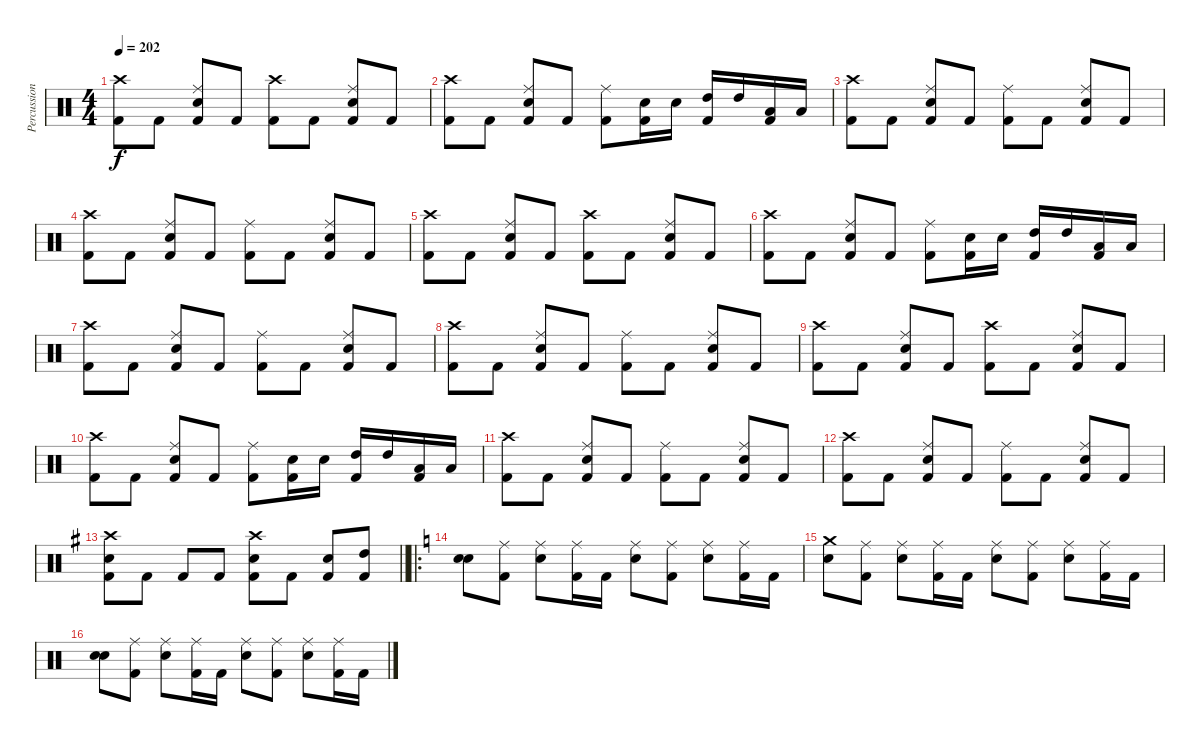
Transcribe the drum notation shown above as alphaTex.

\track ("Percussion" "Percussion") {instrument percussion}
\staff {score}
\articulation defaults
\ts (4 4)
\tempo 202
\clef neutral
\ks c
("Crash high (hit)" "Kick (hit) 2").8{dy f} "Kick (hit) 2".8 ("Ride (middle)" "Electric Snare (hit)" "Kick (hit) 2").8 "Kick (hit) 2".8 ("Crash high (hit)" "Kick (hit) 2").8 "Kick (hit) 2".8 ("Ride (middle)" "Electric Snare (hit)" "Kick (hit) 2").8 "Kick (hit) 2".8 |
("Crash high (hit)" "Kick (hit) 2").8 "Kick (hit) 2".8 ("Ride (middle)" "Electric Snare (hit)" "Kick (hit) 2").8 "Kick (hit) 2".8 ("Ride (middle)" "Kick (hit) 2").8 ("Electric Snare (hit)" "Kick (hit) 2").16 "Electric Snare (hit)".16 ("High Tom (hit)" "Kick (hit) 2").16 "High Tom (hit)".16 ("Low Tom (hit)" "Kick (hit) 2").16 "Low Tom (hit)".16 |
("Crash high (hit)" "Kick (hit) 2").8 "Kick (hit) 2".8 ("Ride (middle)" "Electric Snare (hit)" "Kick (hit) 2").8 "Kick (hit) 2".8 ("Ride (middle)" "Kick (hit) 2").8 "Kick (hit) 2".8 ("Ride (middle)" "Electric Snare (hit)" "Kick (hit) 2").8 "Kick (hit) 2".8 |
("Crash high (hit)" "Kick (hit) 2").8 "Kick (hit) 2".8 ("Ride (middle)" "Electric Snare (hit)" "Kick (hit) 2").8 "Kick (hit) 2".8 ("Ride (middle)" "Kick (hit) 2").8 "Kick (hit) 2".8 ("Ride (middle)" "Electric Snare (hit)" "Kick (hit) 2").8 "Kick (hit) 2".8 |
("Crash high (hit)" "Kick (hit) 2").8 "Kick (hit) 2".8 ("Ride (middle)" "Electric Snare (hit)" "Kick (hit) 2").8 "Kick (hit) 2".8 ("Crash high (hit)" "Kick (hit) 2").8 "Kick (hit) 2".8 ("Ride (middle)" "Electric Snare (hit)" "Kick (hit) 2").8 "Kick (hit) 2".8 |
("Crash high (hit)" "Kick (hit) 2").8 "Kick (hit) 2".8 ("Ride (middle)" "Electric Snare (hit)" "Kick (hit) 2").8 "Kick (hit) 2".8 ("Ride (middle)" "Kick (hit) 2").8 ("Electric Snare (hit)" "Kick (hit) 2").16 "Electric Snare (hit)".16 ("High Tom (hit)" "Kick (hit) 2").16 "High Tom (hit)".16 ("Low Tom (hit)" "Kick (hit) 2").16 "Low Tom (hit)".16 |
("Crash high (hit)" "Kick (hit) 2").8 "Kick (hit) 2".8 ("Ride (middle)" "Electric Snare (hit)" "Kick (hit) 2").8 "Kick (hit) 2".8 ("Ride (middle)" "Kick (hit) 2").8 "Kick (hit) 2".8 ("Ride (middle)" "Electric Snare (hit)" "Kick (hit) 2").8 "Kick (hit) 2".8 |
("Crash high (hit)" "Kick (hit) 2").8 "Kick (hit) 2".8 ("Ride (middle)" "Electric Snare (hit)" "Kick (hit) 2").8 "Kick (hit) 2".8 ("Ride (middle)" "Kick (hit) 2").8 "Kick (hit) 2".8 ("Ride (middle)" "Electric Snare (hit)" "Kick (hit) 2").8 "Kick (hit) 2".8 |
("Crash high (hit)" "Kick (hit) 2").8 "Kick (hit) 2".8 ("Ride (middle)" "Electric Snare (hit)" "Kick (hit) 2").8 "Kick (hit) 2".8 ("Crash high (hit)" "Kick (hit) 2").8 "Kick (hit) 2".8 ("Ride (middle)" "Electric Snare (hit)" "Kick (hit) 2").8 "Kick (hit) 2".8 |
("Crash high (hit)" "Kick (hit) 2").8 "Kick (hit) 2".8 ("Ride (middle)" "Electric Snare (hit)" "Kick (hit) 2").8 "Kick (hit) 2".8 ("Ride (middle)" "Kick (hit) 2").8 ("Electric Snare (hit)" "Kick (hit) 2").16 "Electric Snare (hit)".16 ("High Tom (hit)" "Kick (hit) 2").16 "High Tom (hit)".16 ("Low Tom (hit)" "Kick (hit) 2").16 "Low Tom (hit)".16 |
("Crash high (hit)" "Kick (hit) 2").8 "Kick (hit) 2".8 ("Ride (middle)" "Electric Snare (hit)" "Kick (hit) 2").8 "Kick (hit) 2".8 ("Ride (middle)" "Kick (hit) 2").8 "Kick (hit) 2".8 ("Ride (middle)" "Electric Snare (hit)" "Kick (hit) 2").8 "Kick (hit) 2".8 |
("Crash high (hit)" "Kick (hit) 2").8 "Kick (hit) 2".8 ("Ride (middle)" "Electric Snare (hit)" "Kick (hit) 2").8 "Kick (hit) 2".8 ("Ride (middle)" "Kick (hit) 2").8 "Kick (hit) 2".8 ("Ride (middle)" "Electric Snare (hit)" "Kick (hit) 2").8 "Kick (hit) 2".8 |
\barLineRight lightlight
\ks g
("Crash high (hit)" "Electric Snare (hit)" "Kick (hit) 2").8 "Kick (hit) 2".8 "Kick (hit) 2".8 "Kick (hit) 2".8 ("Crash high (hit)" "Electric Snare (hit)" "Kick (hit) 2").8 "Kick (hit) 2".8 ("Electric Snare (hit)" "Kick (hit) 2").8 ("High Tom (hit)" "Kick (hit) 2").8 |
\ro
\ks c
("Snare (hit)" "Electric Snare (hit)").8 ("Ride (middle)" "Kick (hit) 2").8 ("Ride (middle)" "Electric Snare (hit)").8 ("Ride (middle)" "Kick (hit) 2").16 "Kick (hit) 2".16 ("Ride (middle)" "Electric Snare (hit)").8 ("Ride (middle)" "Kick (hit) 2").8 ("Ride (middle)" "Electric Snare (hit)").8 ("Ride (middle)" "Kick (hit) 2").16 "Kick (hit) 2".16 |
("Crash medium (hit)" "Electric Snare (hit)").8 ("Ride (middle)" "Kick (hit) 2").8 ("Ride (middle)" "Electric Snare (hit)").8 ("Ride (middle)" "Kick (hit) 2").16 "Kick (hit) 2".16 ("Ride (middle)" "Electric Snare (hit)").8 ("Ride (middle)" "Kick (hit) 2").8 ("Ride (middle)" "Electric Snare (hit)").8 ("Ride (middle)" "Kick (hit) 2").16 "Kick (hit) 2".16 |
("Snare (hit)" "Electric Snare (hit)").8 ("Ride (middle)" "Kick (hit) 2").8 ("Ride (middle)" "Electric Snare (hit)").8 ("Ride (middle)" "Kick (hit) 2").16 "Kick (hit) 2".16 ("Ride (middle)" "Electric Snare (hit)").8 ("Ride (middle)" "Kick (hit) 2").8 ("Ride (middle)" "Electric Snare (hit)").8 ("Ride (middle)" "Kick (hit) 2").16 "Kick (hit) 2".16
